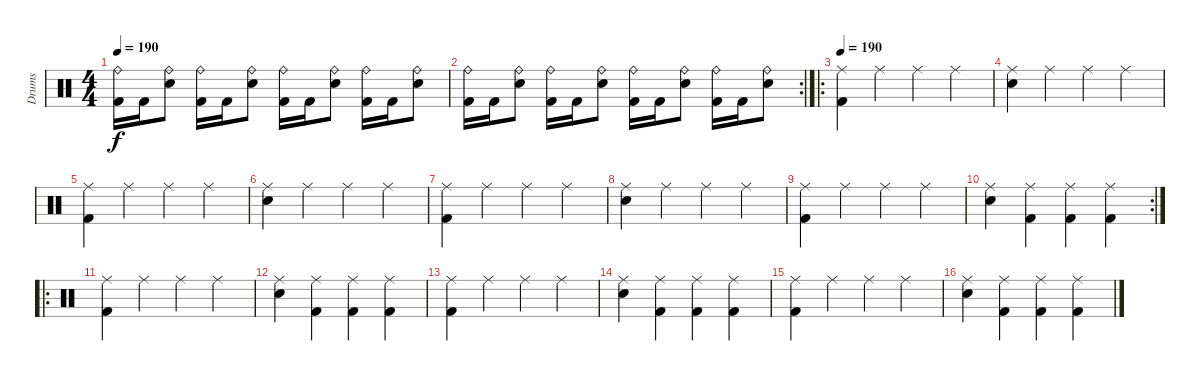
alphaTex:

\track ("Drums" "Drums") {instrument percussion}
\staff {score}
\articulation defaults
\ts (4 4)
\tempo 190
\clef neutral
\ks c
("Ride (bell)" "Kick (hit) 2").16{dy f} "Kick (hit) 2".16 ("Ride (bell)" "Electric Snare (hit)").8 ("Ride (bell)" "Kick (hit) 2").16 "Kick (hit) 2".16 ("Ride (bell)" "Electric Snare (hit)").8 ("Ride (bell)" "Kick (hit) 2").16 "Kick (hit) 2".16 ("Ride (bell)" "Electric Snare (hit)").8 ("Ride (bell)" "Kick (hit) 2").16 "Kick (hit) 2".16 ("Ride (bell)" "Electric Snare (hit)").8 |
\rc 2
("Ride (bell)" "Kick (hit) 2").16 "Kick (hit) 2".16 ("Ride (bell)" "Electric Snare (hit)").8 ("Ride (bell)" "Kick (hit) 2").16 "Kick (hit) 2".16 ("Ride (bell)" "Electric Snare (hit)").8 ("Ride (bell)" "Kick (hit) 2").16 "Kick (hit) 2".16 ("Ride (bell)" "Electric Snare (hit)").8 ("Ride (bell)" "Kick (hit) 2").16 "Kick (hit) 2".16 ("Ride (bell)" "Electric Snare (hit)").8 |
\ro
\tempo 190
("Ride (middle)" "Kick (hit) 2").4 "Ride (middle)".4 "Ride (middle)".4 "Ride (middle)".4 |
("Ride (middle)" "Electric Snare (hit)").4 "Ride (middle)".4 "Ride (middle)".4 "Ride (middle)".4 |
("Ride (middle)" "Kick (hit) 2").4 "Ride (middle)".4 "Ride (middle)".4 "Ride (middle)".4 |
("Ride (middle)" "Electric Snare (hit)").4 "Ride (middle)".4 "Ride (middle)".4 "Ride (middle)".4 |
("Ride (middle)" "Kick (hit) 2").4 "Ride (middle)".4 "Ride (middle)".4 "Ride (middle)".4 |
("Ride (middle)" "Electric Snare (hit)").4 "Ride (middle)".4 "Ride (middle)".4 "Ride (middle)".4 |
("Ride (middle)" "Kick (hit) 2").4 "Ride (middle)".4 "Ride (middle)".4 "Ride (middle)".4 |
\rc 2
("Ride (middle)" "Electric Snare (hit)").4 ("Ride (middle)" "Kick (hit) 2").4 ("Ride (middle)" "Kick (hit) 2").4 ("Ride (middle)" "Kick (hit) 2").4 |
\ro
("Ride (middle)" "Kick (hit) 2").4 "Ride (middle)".4 "Ride (middle)".4 "Ride (middle)".4 |
("Ride (middle)" "Electric Snare (hit)").4 ("Ride (middle)" "Kick (hit) 2").4 ("Ride (middle)" "Kick (hit) 2").4 ("Ride (middle)" "Kick (hit) 2").4 |
("Ride (middle)" "Kick (hit) 2").4 "Ride (middle)".4 "Ride (middle)".4 "Ride (middle)".4 |
("Ride (middle)" "Electric Snare (hit)").4 ("Ride (middle)" "Kick (hit) 2").4 ("Ride (middle)" "Kick (hit) 2").4 ("Ride (middle)" "Kick (hit) 2").4 |
("Ride (middle)" "Kick (hit) 2").4 "Ride (middle)".4 "Ride (middle)".4 "Ride (middle)".4 |
("Ride (middle)" "Electric Snare (hit)").4 ("Ride (middle)" "Kick (hit) 2").4 ("Ride (middle)" "Kick (hit) 2").4 ("Ride (middle)" "Kick (hit) 2").4
